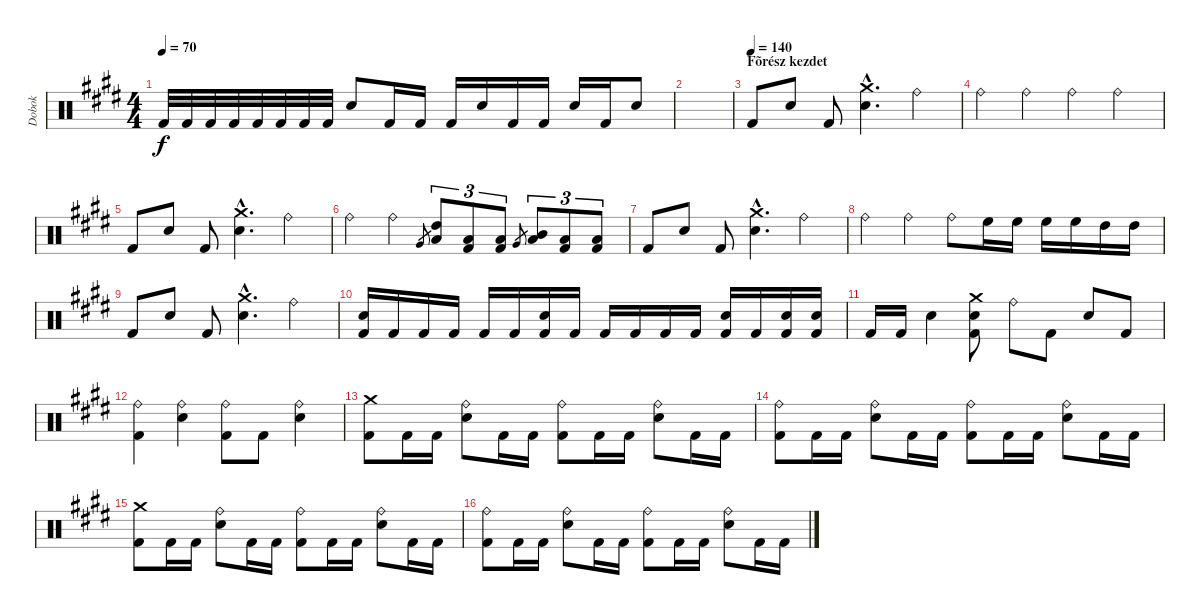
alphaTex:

\track ("Dobok" "Dobok") {instrument percussion}
\staff {score}
\articulation defaults
\ts (4 4)
\tempo 70
\clef neutral
\ks c#minor "Kick (hit) 2".32{dy f} "Kick (hit) 2".32 "Kick (hit) 2".32 "Kick (hit) 2".32 "Kick (hit) 2".32 "Kick (hit) 2".32 "Kick (hit) 2".32 "Kick (hit) 2".32 "Snare (hit) 2".8 "Kick (hit) 2".16 "Kick (hit) 2".16 "Kick (hit) 2".16 "Snare (hit) 2".16 "Kick (hit) 2".16 "Kick (hit) 2".16 "Snare (hit) 2".16 "Kick (hit) 2".16 "Snare (hit) 2".8
|
|
\section ("" "Fõrész kezdet")
\tempo (140)
"Kick (hit) 2".8{volume 16} "Snare (hit) 2".8 "Kick (hit) 2".8 ("Crash medium (hit)"{hac} "Snare (hit) 2"{hac}).4{d} "Ride (bell)".4 |
"Ride (bell)".4 "Ride (bell)".4 "Ride (bell)".4 "Ride (bell)".4 |
"Kick (hit) 2".8 "Snare (hit) 2".8 "Kick (hit) 2".8 ("Crash medium (hit)"{hac} "Snare (hit) 2"{hac}).4{d} "Ride (bell)".4 |
"Ride (bell)".4 "Ride (bell)".4 "Very Low Tom (hit)".8{gr} ("High Tom (hit)" "Low Tom (hit)").8{tu (3 2)} ("Low Tom (hit)" "Kick (hit) 2").8{tu (3 2)} ("Low Tom (hit)" "Kick (hit) 2").8{tu (3 2)} "Very Low Tom (hit)".8{gr} ("Mid Tom (hit)" "Low Tom (hit)").8{tu (3 2)} ("Low Tom (hit)" "Kick (hit) 2").8{tu (3 2)} ("Low Tom (hit)" "Kick (hit) 2").8{tu (3 2)} |
"Kick (hit) 2".8 "Snare (hit) 2".8 "Kick (hit) 2".8 ("Crash medium (hit)"{hac} "Snare (hit) 2"{hac}).4{d} "Ride (bell)".4 |
"Ride (bell)".4 "Ride (bell)".4 "Ride (bell)".8 "High Floor Tom (hit)".16 "High Floor Tom (hit)".16 "High Floor Tom (hit)".16 "High Floor Tom (hit)".16 "High Tom (hit)".16 "High Tom (hit)".16 |
"Kick (hit) 2".8 "Snare (hit) 2".8 "Kick (hit) 2".8 ("Crash medium (hit)"{hac} "Snare (hit) 2"{hac}).4{d} "Ride (bell)".4 |
("Snare (hit) 2" "Kick (hit) 2").16 "Kick (hit) 2".16 "Kick (hit) 2".16 "Kick (hit) 2".16 "Kick (hit) 2".16 "Kick (hit) 2".16 ("Snare (hit) 2" "Kick (hit) 2").16 "Kick (hit) 2".16 "Kick (hit) 2".16 "Kick (hit) 2".16 "Kick (hit) 2".16 "Kick (hit) 2".16 ("Snare (hit) 2" "Kick (hit) 2").16 "Kick (hit) 2".16 ("Snare (hit) 2" "Kick (hit) 2").16 ("Snare (hit) 2" "Kick (hit) 2").16 |
"Kick (hit) 2".16 "Kick (hit) 2".16 "Snare (hit) 2".4 ("Crash medium (hit)" "Snare (hit) 2" "Kick (hit) 2").8 "Ride (bell)".8 "Kick (hit) 2".8 "Snare (hit) 2".8 "Kick (hit) 2".8 |
("Ride (bell)" "Kick (hit) 2").4 ("Ride (bell)" "Snare (hit) 2").4 ("Ride (bell)" "Kick (hit) 2").8 "Kick (hit) 2".8 ("Ride (bell)" "Snare (hit) 2").4 |
("Crash medium (hit)" "Kick (hit) 2").8 "Kick (hit) 2".16 "Kick (hit) 2".16 ("Ride (bell)" "Snare (hit) 2").8 "Kick (hit) 2".16 "Kick (hit) 2".16 ("Ride (bell)" "Kick (hit) 2").8 "Kick (hit) 2".16 "Kick (hit) 2".16 ("Ride (bell)" "Snare (hit) 2").8 "Kick (hit) 2".16 "Kick (hit) 2".16 |
("Ride (bell)" "Kick (hit) 2").8 "Kick (hit) 2".16 "Kick (hit) 2".16 ("Ride (bell)" "Snare (hit) 2").8 "Kick (hit) 2".16 "Kick (hit) 2".16 ("Ride (bell)" "Kick (hit) 2").8 "Kick (hit) 2".16 "Kick (hit) 2".16 ("Ride (bell)" "Snare (hit) 2").8 "Kick (hit) 2".16 "Kick (hit) 2".16 |
("Crash medium (hit)" "Kick (hit) 2").8 "Kick (hit) 2".16 "Kick (hit) 2".16 ("Ride (bell)" "Snare (hit) 2").8 "Kick (hit) 2".16 "Kick (hit) 2".16 ("Ride (bell)" "Kick (hit) 2").8 "Kick (hit) 2".16 "Kick (hit) 2".16 ("Ride (bell)" "Snare (hit) 2").8 "Kick (hit) 2".16 "Kick (hit) 2".16 |
("Ride (bell)" "Kick (hit) 2").8 "Kick (hit) 2".16 "Kick (hit) 2".16 ("Ride (bell)" "Snare (hit) 2").8 "Kick (hit) 2".16 "Kick (hit) 2".16 ("Ride (bell)" "Kick (hit) 2").8 "Kick (hit) 2".16 "Kick (hit) 2".16 ("Ride (bell)" "Snare (hit) 2").8 "Kick (hit) 2".16 "Kick (hit) 2".16
